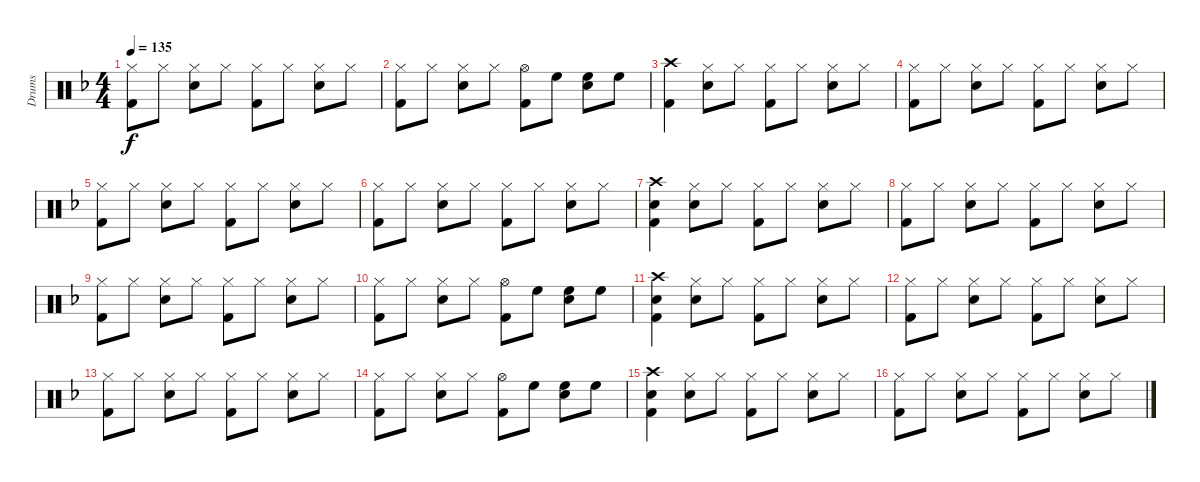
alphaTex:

\track ("Drums" "Drums") {instrument percussion}
\staff {score}
\articulation defaults
\ts (4 4)
\tempo 135
\clef neutral
\ks f
("Hi-Hat (closed)" "Kick (hit) 2").8{dy f} "Hi-Hat (closed)".8 ("Hi-Hat (closed)" "Snare (hit) 2").8 "Hi-Hat (closed)".8 ("Hi-Hat (closed)" "Kick (hit) 2").8 "Hi-Hat (closed)".8 ("Hi-Hat (closed)" "Snare (hit) 2").8 "Hi-Hat (closed)".8 |
("Hi-Hat (closed)" "Kick (hit) 2").8 "Hi-Hat (closed)".8 ("Hi-Hat (closed)" "Snare (hit) 2").8 "Hi-Hat (closed)".8 ("Hi-Hat (open)" "Kick (hit) 2").8 "High Floor Tom (hit)".8 ("High Floor Tom (hit)" "Snare (hit) 2").8 "High Floor Tom (hit)".8 |
("Crash high (hit)" "Kick (hit) 2").4 ("Hi-Hat (closed)" "Snare (hit) 2").8 "Hi-Hat (closed)".8 ("Hi-Hat (closed)" "Kick (hit) 2").8 "Hi-Hat (closed)".8 ("Hi-Hat (closed)" "Snare (hit) 2").8 "Hi-Hat (closed)".8 |
("Hi-Hat (closed)" "Kick (hit) 2").8 "Hi-Hat (closed)".8 ("Hi-Hat (closed)" "Snare (hit) 2").8 "Hi-Hat (closed)".8 ("Hi-Hat (closed)" "Kick (hit) 2").8 "Hi-Hat (closed)".8 ("Hi-Hat (closed)" "Snare (hit) 2").8 "Hi-Hat (closed)".8 |
("Hi-Hat (closed)" "Kick (hit) 2").8 "Hi-Hat (closed)".8 ("Hi-Hat (closed)" "Snare (hit) 2").8 "Hi-Hat (closed)".8 ("Hi-Hat (closed)" "Kick (hit) 2").8 "Hi-Hat (closed)".8 ("Hi-Hat (closed)" "Snare (hit) 2").8 "Hi-Hat (closed)".8 |
("Hi-Hat (closed)" "Kick (hit) 2").8 "Hi-Hat (closed)".8 ("Hi-Hat (closed)" "Snare (hit) 2").8 "Hi-Hat (closed)".8 ("Hi-Hat (closed)" "Kick (hit) 2").8 "Hi-Hat (closed)".8 ("Hi-Hat (closed)" "Snare (hit) 2").8 "Hi-Hat (closed)".8 |
("Crash high (hit)" "Snare (hit) 2" "Kick (hit) 2").4 ("Hi-Hat (closed)" "Snare (hit) 2").8 "Hi-Hat (closed)".8 ("Hi-Hat (closed)" "Kick (hit) 2").8 "Hi-Hat (closed)".8 ("Hi-Hat (closed)" "Snare (hit) 2").8 "Hi-Hat (closed)".8 |
("Hi-Hat (closed)" "Kick (hit) 2").8 "Hi-Hat (closed)".8 ("Hi-Hat (closed)" "Snare (hit) 2").8 "Hi-Hat (closed)".8 ("Hi-Hat (closed)" "Kick (hit) 2").8 "Hi-Hat (closed)".8 ("Hi-Hat (closed)" "Snare (hit) 2").8 "Hi-Hat (closed)".8 |
("Hi-Hat (closed)" "Kick (hit) 2").8 "Hi-Hat (closed)".8 ("Hi-Hat (closed)" "Snare (hit) 2").8 "Hi-Hat (closed)".8 ("Hi-Hat (closed)" "Kick (hit) 2").8 "Hi-Hat (closed)".8 ("Hi-Hat (closed)" "Snare (hit) 2").8 "Hi-Hat (closed)".8 |
("Hi-Hat (closed)" "Kick (hit) 2").8 "Hi-Hat (closed)".8 ("Hi-Hat (closed)" "Snare (hit) 2").8 "Hi-Hat (closed)".8 ("Hi-Hat (open)" "Kick (hit) 2").8 "High Floor Tom (hit)".8 ("High Floor Tom (hit)" "Snare (hit) 2").8 "High Floor Tom (hit)".8 |
("Crash high (hit)" "Snare (hit) 2" "Kick (hit) 2").4 ("Hi-Hat (closed)" "Snare (hit) 2").8 "Hi-Hat (closed)".8 ("Hi-Hat (closed)" "Kick (hit) 2").8 "Hi-Hat (closed)".8 ("Hi-Hat (closed)" "Snare (hit) 2").8 "Hi-Hat (closed)".8 |
("Hi-Hat (closed)" "Kick (hit) 2").8 "Hi-Hat (closed)".8 ("Hi-Hat (closed)" "Snare (hit) 2").8 "Hi-Hat (closed)".8 ("Hi-Hat (closed)" "Kick (hit) 2").8 "Hi-Hat (closed)".8 ("Hi-Hat (closed)" "Snare (hit) 2").8 "Hi-Hat (closed)".8 |
("Hi-Hat (closed)" "Kick (hit) 2").8 "Hi-Hat (closed)".8 ("Hi-Hat (closed)" "Snare (hit) 2").8 "Hi-Hat (closed)".8 ("Hi-Hat (closed)" "Kick (hit) 2").8 "Hi-Hat (closed)".8 ("Hi-Hat (closed)" "Snare (hit) 2").8 "Hi-Hat (closed)".8 |
("Hi-Hat (closed)" "Kick (hit) 2").8 "Hi-Hat (closed)".8 ("Hi-Hat (closed)" "Snare (hit) 2").8 "Hi-Hat (closed)".8 ("Hi-Hat (open)" "Kick (hit) 2").8 "High Floor Tom (hit)".8 ("High Floor Tom (hit)" "Snare (hit) 2").8 "High Floor Tom (hit)".8 |
("Crash high (hit)" "Snare (hit) 2" "Kick (hit) 2").4 ("Hi-Hat (closed)" "Snare (hit) 2").8 "Hi-Hat (closed)".8 ("Hi-Hat (closed)" "Kick (hit) 2").8 "Hi-Hat (closed)".8 ("Hi-Hat (closed)" "Snare (hit) 2").8 "Hi-Hat (closed)".8 |
("Hi-Hat (closed)" "Kick (hit) 2").8 "Hi-Hat (closed)".8 ("Hi-Hat (closed)" "Snare (hit) 2").8 "Hi-Hat (closed)".8 ("Hi-Hat (closed)" "Kick (hit) 2").8 "Hi-Hat (closed)".8 ("Hi-Hat (closed)" "Snare (hit) 2").8 "Hi-Hat (closed)".8
